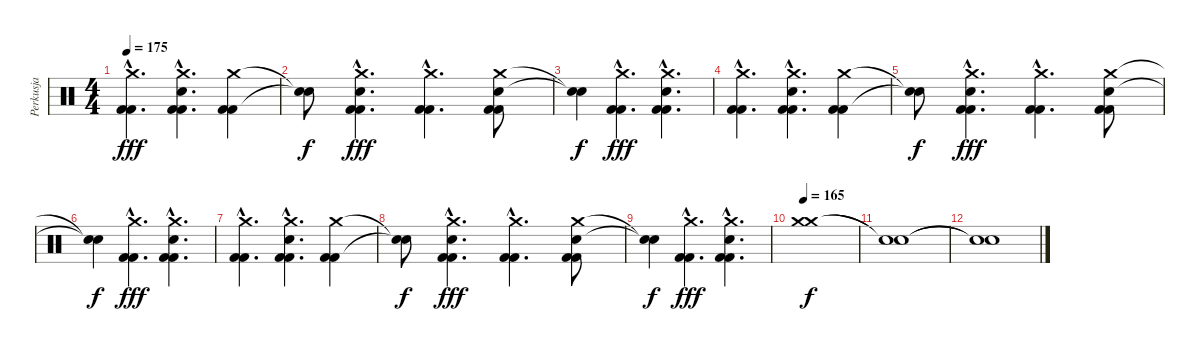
\track ("Perkusja" "Perkusja") {instrument percussion}
\staff {score}
\articulation defaults
\ts (4 4)
\tempo 175
\clef neutral
\ks c
("Crash medium (hit)"{hac} "Kick (hit) 2"{tr (36 16) hac} "Kick (hit) 2"{hac}).4{d dy fff} ("Crash medium (hit)"{hac} "Snare (hit) 2"{hac} "Kick (hit) 2"{tr (36 16) hac} "Kick (hit) 2"{hac}).4{d} ("Crash medium (hit)" "Kick (hit) 2"{tr (36 16)} "Kick (hit) 2").4 |
("Snare (hit)"{t} "Snare (hit)"{t}).8{dy f} ("Crash medium (hit)"{hac} "Snare (hit) 2"{hac} "Kick (hit) 2"{tr (36 16) hac} "Kick (hit) 2"{hac}).4{d dy fff} ("Crash medium (hit)"{hac} "Kick (hit) 2"{tr (36 16) hac} "Kick (hit) 2"{hac}).4{d} ("Crash medium (hit)" "Snare (hit) 2" "Kick (hit) 2"{tr (36 16)} "Kick (hit) 2").8 |
("Snare (hit)"{t} "Snare (hit)"{t}).4{dy f} ("Crash medium (hit)"{hac} "Kick (hit) 2"{tr (36 16) hac} "Kick (hit) 2"{hac}).4{d dy fff} ("Crash medium (hit)"{hac} "Snare (hit) 2"{hac} "Kick (hit) 2"{tr (36 16) hac} "Kick (hit) 2"{hac}).4{d} |
("Crash medium (hit)"{hac} "Kick (hit) 2"{tr (36 16) hac} "Kick (hit) 2"{hac}).4{d} ("Crash medium (hit)"{hac} "Snare (hit) 2"{hac} "Kick (hit) 2"{tr (36 16) hac} "Kick (hit) 2"{hac}).4{d} ("Crash medium (hit)" "Kick (hit) 2"{tr (36 16)} "Kick (hit) 2").4 |
("Snare (hit)"{t} "Snare (hit)"{t}).8{dy f} ("Crash medium (hit)"{hac} "Snare (hit) 2"{hac} "Kick (hit) 2"{tr (36 16) hac} "Kick (hit) 2"{hac}).4{d dy fff} ("Crash medium (hit)"{hac} "Kick (hit) 2"{tr (36 16) hac} "Kick (hit) 2"{hac}).4{d} ("Crash medium (hit)" "Snare (hit) 2" "Kick (hit) 2"{tr (36 16)} "Kick (hit) 2").8 |
("Snare (hit)"{t} "Snare (hit)"{t}).4{dy f} ("Crash medium (hit)"{hac} "Kick (hit) 2"{tr (36 16) hac} "Kick (hit) 2"{hac}).4{d dy fff} ("Crash medium (hit)"{hac} "Snare (hit) 2"{hac} "Kick (hit) 2"{tr (36 16) hac} "Kick (hit) 2"{hac}).4{d} |
("Crash medium (hit)"{hac} "Kick (hit) 2"{tr (36 16) hac} "Kick (hit) 2"{hac}).4{d} ("Crash medium (hit)"{hac} "Snare (hit) 2"{hac} "Kick (hit) 2"{tr (36 16) hac} "Kick (hit) 2"{hac}).4{d} ("Crash medium (hit)" "Kick (hit) 2"{tr (36 16)} "Kick (hit) 2").4 |
("Snare (hit)"{t} "Snare (hit)"{t}).8{dy f} ("Crash medium (hit)"{hac} "Snare (hit) 2"{hac} "Kick (hit) 2"{tr (36 16) hac} "Kick (hit) 2"{hac}).4{d dy fff} ("Crash medium (hit)"{hac} "Kick (hit) 2"{tr (36 16) hac} "Kick (hit) 2"{hac}).4{d} ("Crash medium (hit)" "Snare (hit) 2" "Kick (hit) 2"{tr (36 16)} "Kick (hit) 2").8 |
("Snare (hit)"{t} "Snare (hit)"{t}).4{dy f} ("Crash medium (hit)"{hac} "Kick (hit) 2"{tr (36 16) hac} "Kick (hit) 2"{hac}).4{d dy fff} ("Crash medium (hit)"{hac} "Snare (hit) 2"{hac} "Kick (hit) 2"{tr (36 16) hac} "Kick (hit) 2"{hac}).4{d} |
\tempo 165
("Crash medium (hit)" "Crash medium (hit)").1{dy f} |
("Snare (hit)"{t} "Snare (hit)"{t}).1 |
("Snare (hit)"{t} "Snare (hit)"{t}).1
